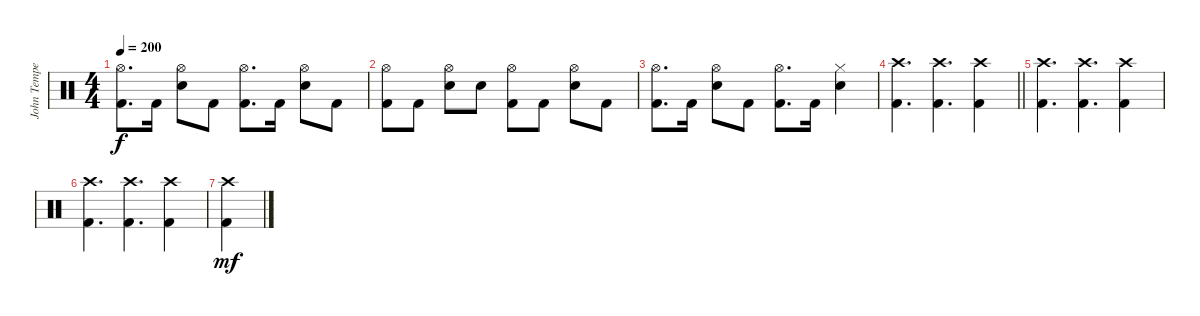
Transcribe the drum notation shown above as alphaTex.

\track ("John Tempesta" "John Tempe") {instrument percussion}
\staff {score}
\articulation defaults
\ts (4 4)
\tempo 200
\clef neutral
\ks c
("Hi-Hat (open)" "Kick (hit) 2").8{d dy f} "Kick (hit) 2".16 ("Electric Snare (hit)" "Hi-Hat (open)").8 "Kick (hit) 2".8 ("Hi-Hat (open)" "Kick (hit) 2").8{d} "Kick (hit) 2".16 ("Electric Snare (hit)" "Hi-Hat (open)").8 "Kick (hit) 2".8 |
("Hi-Hat (open)" "Kick (hit) 2").8 "Kick (hit) 2".8 ("Electric Snare (hit)" "Hi-Hat (open)").8 "Electric Snare (hit)".8 ("Hi-Hat (open)" "Kick (hit) 2").8 "Kick (hit) 2".8 ("Electric Snare (hit)" "Hi-Hat (open)").8 "Kick (hit) 2".8 |
("Hi-Hat (open)" "Kick (hit) 2").8{d} "Kick (hit) 2".16 ("Electric Snare (hit)" "Hi-Hat (open)").8 "Kick (hit) 2".8 ("Hi-Hat (open)" "Kick (hit) 2").8{d} "Kick (hit) 2".16 ("Electric Snare (hit)" "Hi-Hat (closed)").4 |
\barLineRight lightlight
("Crash high (hit)" "Kick (hit) 2").4{d} ("Crash high (hit)" "Kick (hit) 2").4{d} ("Crash high (hit)" "Kick (hit) 2").4 |
("Crash high (hit)" "Kick (hit) 2").4{d} ("Crash high (hit)" "Kick (hit) 2").4{d} ("Crash high (hit)" "Kick (hit) 2").4 |
("Crash high (hit)" "Kick (hit) 2").4{d} ("Crash high (hit)" "Kick (hit) 2").4{d} ("Crash high (hit)" "Kick (hit) 2").4 |
("Crash high (hit)" "Kick (hit) 2").4{dy mf}
